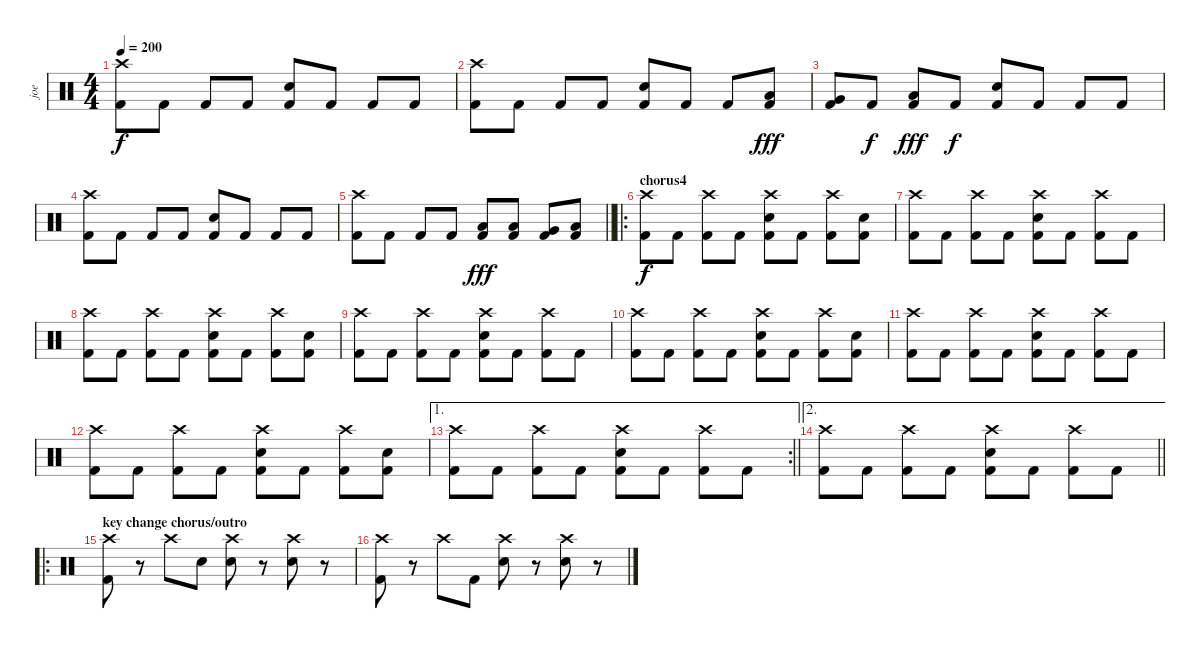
\track ("joe" "joe") {instrument percussion}
\staff {score}
\articulation defaults
\ts (4 4)
\tempo 200
\clef neutral
\ks c
("Crash high (hit)" "Kick (hit) 2").8{dy f} "Kick (hit) 2".8 "Kick (hit) 2".8 "Kick (hit) 2".8 ("Snare (hit) 2" "Kick (hit) 2").8 "Kick (hit) 2".8 "Kick (hit) 2".8 "Kick (hit) 2".8 |
("Crash high (hit)" "Kick (hit) 2").8 "Kick (hit) 2".8 "Kick (hit) 2".8 "Kick (hit) 2".8 ("Snare (hit) 2" "Kick (hit) 2").8 "Kick (hit) 2".8 "Kick (hit) 2".8 ("Low Tom (hit)" "Kick (hit) 2").8{dy fff} |
("Very Low Tom (hit)" "Kick (hit) 2").8 "Kick (hit) 2".8{dy f} ("Low Floor Tom (hit)" "Kick (hit) 2").8{dy fff} "Kick (hit) 2".8{dy f} ("Snare (hit) 2" "Kick (hit) 2").8 "Kick (hit) 2".8 "Kick (hit) 2".8 "Kick (hit) 2".8 |
("Crash high (hit)" "Kick (hit) 2").8 "Kick (hit) 2".8 "Kick (hit) 2".8 "Kick (hit) 2".8 ("Snare (hit) 2" "Kick (hit) 2").8 "Kick (hit) 2".8 "Kick (hit) 2".8 "Kick (hit) 2".8 |
\barLineRight lightlight
("Crash high (hit)" "Kick (hit) 2").8 "Kick (hit) 2".8 "Kick (hit) 2".8 "Kick (hit) 2".8 ("Low Tom (hit)" "Kick (hit) 2").8{dy fff} ("Low Tom (hit)" "Kick (hit) 2").8 ("Very Low Tom (hit)" "Kick (hit) 2").8 ("Low Floor Tom (hit)" "Kick (hit) 2").8 |
\ro
\section ("" "chorus4")
("Crash high (hit)" "Kick (hit) 2").8{dy f} "Kick (hit) 2".8 ("Crash high (hit)" "Kick (hit) 2").8 "Kick (hit) 2".8 ("Crash high (hit)" "Snare (hit) 2" "Kick (hit) 2").8 "Kick (hit) 2".8 ("Crash high (hit)" "Kick (hit) 2").8 ("Snare (hit) 2" "Kick (hit) 2").8 |
("Crash high (hit)" "Kick (hit) 2").8 "Kick (hit) 2".8 ("Crash high (hit)" "Kick (hit) 2").8 "Kick (hit) 2".8 ("Crash high (hit)" "Snare (hit) 2" "Kick (hit) 2").8 "Kick (hit) 2".8 ("Crash high (hit)" "Kick (hit) 2").8 "Kick (hit) 2".8 |
("Crash high (hit)" "Kick (hit) 2").8 "Kick (hit) 2".8 ("Crash high (hit)" "Kick (hit) 2").8 "Kick (hit) 2".8 ("Crash high (hit)" "Snare (hit) 2" "Kick (hit) 2").8 "Kick (hit) 2".8 ("Crash high (hit)" "Kick (hit) 2").8 ("Snare (hit) 2" "Kick (hit) 2").8 |
("Crash high (hit)" "Kick (hit) 2").8 "Kick (hit) 2".8 ("Crash high (hit)" "Kick (hit) 2").8 "Kick (hit) 2".8 ("Crash high (hit)" "Snare (hit) 2" "Kick (hit) 2").8 "Kick (hit) 2".8 ("Crash high (hit)" "Kick (hit) 2").8 "Kick (hit) 2".8 |
("Crash high (hit)" "Kick (hit) 2").8 "Kick (hit) 2".8 ("Crash high (hit)" "Kick (hit) 2").8 "Kick (hit) 2".8 ("Crash high (hit)" "Snare (hit) 2" "Kick (hit) 2").8 "Kick (hit) 2".8 ("Crash high (hit)" "Kick (hit) 2").8 ("Snare (hit) 2" "Kick (hit) 2").8 |
("Crash high (hit)" "Kick (hit) 2").8 "Kick (hit) 2".8 ("Crash high (hit)" "Kick (hit) 2").8 "Kick (hit) 2".8 ("Crash high (hit)" "Snare (hit) 2" "Kick (hit) 2").8 "Kick (hit) 2".8 ("Crash high (hit)" "Kick (hit) 2").8 "Kick (hit) 2".8 |
("Crash high (hit)" "Kick (hit) 2").8 "Kick (hit) 2".8 ("Crash high (hit)" "Kick (hit) 2").8 "Kick (hit) 2".8 ("Crash high (hit)" "Snare (hit) 2" "Kick (hit) 2").8 "Kick (hit) 2".8 ("Crash high (hit)" "Kick (hit) 2").8 ("Snare (hit) 2" "Kick (hit) 2").8 |
\ae 1
\rc 2
\barLineRight lightlight
("Crash high (hit)" "Kick (hit) 2").8 "Kick (hit) 2".8 ("Crash high (hit)" "Kick (hit) 2").8 "Kick (hit) 2".8 ("Crash high (hit)" "Snare (hit) 2" "Kick (hit) 2").8 "Kick (hit) 2".8 ("Crash high (hit)" "Kick (hit) 2").8 "Kick (hit) 2".8 |
\ae 2
\barLineRight lightlight
("Crash high (hit)" "Kick (hit) 2").8 "Kick (hit) 2".8 ("Crash high (hit)" "Kick (hit) 2").8 "Kick (hit) 2".8 ("Crash high (hit)" "Snare (hit) 2" "Kick (hit) 2").8 "Kick (hit) 2".8 ("Crash high (hit)" "Kick (hit) 2").8 "Kick (hit) 2".8 |
\ro
\section ("" "key change chorus/outro")
("Crash high (hit)" "Kick (hit) 2").8 r.8 "Crash high (hit)".8 "Snare (hit) 2".8 ("Crash high (hit)" "Snare (hit) 2").8 r.8 ("Crash high (hit)" "Snare (hit) 2").8 r.8 |
("Crash high (hit)" "Kick (hit) 2").8 r.8 "Crash high (hit)".8 "Kick (hit) 2".8 ("Crash high (hit)" "Snare (hit) 2").8 r.8 ("Crash high (hit)" "Snare (hit) 2").8 r.8
